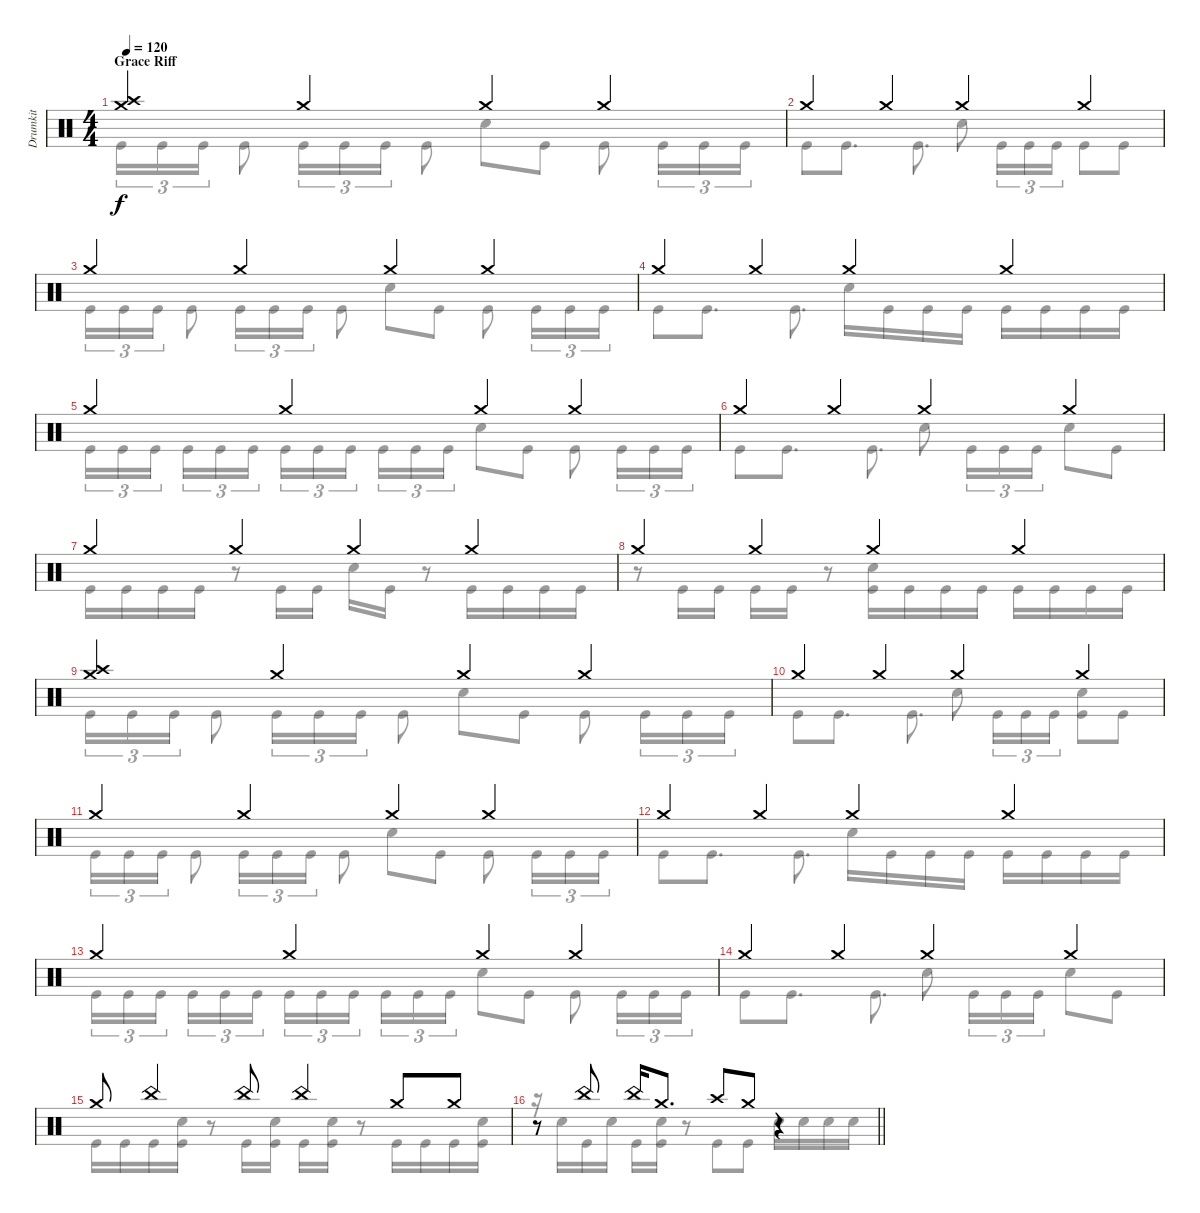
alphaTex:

\track ("Drumkit" "Drumkit") {instrument percussion}
\staff {score}
\articulation defaults
\voice
\ts (4 4)
\section ("" "Grace Riff")
\tempo 120
\clef neutral
\ks c
("Crash high (hit)" "Crash medium (hit)").4{dy f} "Crash medium (hit)".4 "Crash medium (hit)".4 "Crash medium (hit)".4 |
"Crash medium (hit)".4 "Crash medium (hit)".4 "Crash medium (hit)".4 "Crash medium (hit)".4 |
"Crash medium (hit)".4 "Crash medium (hit)".4 "Crash medium (hit)".4 "Crash medium (hit)".4 |
"Crash medium (hit)".4 "Crash medium (hit)".4 "Crash medium (hit)".4 "Crash medium (hit)".4 |
"Crash medium (hit)".4 "Crash medium (hit)".4 "Crash medium (hit)".4 "Crash medium (hit)".4 |
"Crash medium (hit)".4 "Crash medium (hit)".4 "Crash medium (hit)".4 "Crash medium (hit)".4 |
"Crash medium (hit)".4 "Crash medium (hit)".4 "Crash medium (hit)".4 "Crash medium (hit)".4 |
"Crash medium (hit)".4 "Crash medium (hit)".4 "Crash medium (hit)".4 "Crash medium (hit)".4 |
("Crash high (hit)" "Crash medium (hit)").4 "Crash medium (hit)".4 "Crash medium (hit)".4 "Crash medium (hit)".4 |
"Crash medium (hit)".4 "Crash medium (hit)".4 "Crash medium (hit)".4 "Crash medium (hit)".4 |
"Crash medium (hit)".4 "Crash medium (hit)".4 "Crash medium (hit)".4 "Crash medium (hit)".4 |
"Crash medium (hit)".4 "Crash medium (hit)".4 "Crash medium (hit)".4 "Crash medium (hit)".4 |
"Crash medium (hit)".4 "Crash medium (hit)".4 "Crash medium (hit)".4 "Crash medium (hit)".4 |
"Crash medium (hit)".4 "Crash medium (hit)".4 "Crash medium (hit)".4 "Crash medium (hit)".4 |
"Crash medium (hit)".8 "China (hit)".4 "China (hit)".8 "China (hit)".4 "Crash medium (hit)".8 "Crash medium (hit)".8 |
\barLineRight lightlight
r.8 "China (hit)".8 "China (hit)".16 "Crash medium (hit)".8{d} "Crash high (hit)".8 "Crash medium (hit)".8 r.4
\voice
\clef neutral
\ottava regular
\simile none
\ks c "Kick (hit)".16{tu (3 2) dy f} "Kick (hit)".16{tu (3 2)} "Kick (hit)".16{tu (3 2)} "Kick (hit)".8 "Kick (hit)".16{tu (3 2)} "Kick (hit)".16{tu (3 2)} "Kick (hit)".16{tu (3 2)} "Kick (hit)".8 "Snare (hit) 2".8 "Kick (hit)".8 "Kick (hit)".8 "Kick (hit)".16{tu (3 2)} "Kick (hit)".16{tu (3 2)} "Kick (hit)".16{tu (3 2)}
|
"Kick (hit)".8 "Kick (hit)".8{d} "Kick (hit)".8{d} "Snare (hit) 2".8 "Kick (hit)".16{tu (3 2)} "Kick (hit)".16{tu (3 2)} "Kick (hit)".16{tu (3 2)} "Kick (hit)".8 "Kick (hit)".8 |
"Kick (hit)".16{tu (3 2)} "Kick (hit)".16{tu (3 2)} "Kick (hit)".16{tu (3 2)} "Kick (hit)".8 "Kick (hit)".16{tu (3 2)} "Kick (hit)".16{tu (3 2)} "Kick (hit)".16{tu (3 2)} "Kick (hit)".8 "Snare (hit) 2".8 "Kick (hit)".8 "Kick (hit)".8 "Kick (hit)".16{tu (3 2)} "Kick (hit)".16{tu (3 2)} "Kick (hit)".16{tu (3 2)} |
"Kick (hit)".8 "Kick (hit)".8{d} "Kick (hit)".8{d} "Snare (hit) 2".16 "Kick (hit)".16 "Kick (hit)".16 "Kick (hit)".16 "Kick (hit)".16 "Kick (hit)".16 "Kick (hit)".16 "Kick (hit)".16 |
"Kick (hit)".16{tu (3 2)} "Kick (hit)".16{tu (3 2)} "Kick (hit)".16{tu (3 2) beam splitsecondary} "Kick (hit)".16{tu (3 2)} "Kick (hit)".16{tu (3 2)} "Kick (hit)".16{tu (3 2)} "Kick (hit)".16{tu (3 2)} "Kick (hit)".16{tu (3 2)} "Kick (hit)".16{tu (3 2) beam splitsecondary} "Kick (hit)".16{tu (3 2)} "Kick (hit)".16{tu (3 2)} "Kick (hit)".16{tu (3 2)} "Snare (hit) 2".8 "Kick (hit)".8 "Kick (hit)".8 "Kick (hit)".16{tu (3 2)} "Kick (hit)".16{tu (3 2)} "Kick (hit)".16{tu (3 2)} |
"Kick (hit)".8 "Kick (hit)".8{d} "Kick (hit)".8{d} "Snare (hit) 2".8 "Kick (hit)".16{tu (3 2)} "Kick (hit)".16{tu (3 2)} "Kick (hit)".16{tu (3 2)} "Snare (hit) 2".8 "Kick (hit)".8 |
"Kick (hit)".16 "Kick (hit)".16 "Kick (hit)".16 "Kick (hit)".16 r.8 "Kick (hit)".16 "Kick (hit)".16 "Snare (hit) 2".16 "Kick (hit)".16 r.8 "Kick (hit)".16 "Kick (hit)".16 "Kick (hit)".16 "Kick (hit)".16 |
r.8 "Kick (hit)".16 "Kick (hit)".16 "Kick (hit)".16 "Kick (hit)".16 r.8 ("Snare (hit) 2" "Kick (hit)").16 "Kick (hit)".16 "Kick (hit)".16 "Kick (hit)".16 "Kick (hit)".16 "Kick (hit)".16 "Kick (hit)".16 "Kick (hit)".16 |
"Kick (hit)".16{tu (3 2)} "Kick (hit)".16{tu (3 2)} "Kick (hit)".16{tu (3 2)} "Kick (hit)".8 "Kick (hit)".16{tu (3 2)} "Kick (hit)".16{tu (3 2)} "Kick (hit)".16{tu (3 2)} "Kick (hit)".8 "Snare (hit) 2".8 "Kick (hit)".8 "Kick (hit)".8 "Kick (hit)".16{tu (3 2)} "Kick (hit)".16{tu (3 2)} "Kick (hit)".16{tu (3 2)} |
"Kick (hit)".8 "Kick (hit)".8{d} "Kick (hit)".8{d} "Snare (hit) 2".8 "Kick (hit)".16{tu (3 2)} "Kick (hit)".16{tu (3 2)} "Kick (hit)".16{tu (3 2)} ("Snare (hit) 2" "Kick (hit)").8 "Kick (hit)".8 |
"Kick (hit)".16{tu (3 2)} "Kick (hit)".16{tu (3 2)} "Kick (hit)".16{tu (3 2)} "Kick (hit)".8 "Kick (hit)".16{tu (3 2)} "Kick (hit)".16{tu (3 2)} "Kick (hit)".16{tu (3 2)} "Kick (hit)".8 "Snare (hit) 2".8 "Kick (hit)".8 "Kick (hit)".8 "Kick (hit)".16{tu (3 2)} "Kick (hit)".16{tu (3 2)} "Kick (hit)".16{tu (3 2)} |
"Kick (hit)".8 "Kick (hit)".8{d} "Kick (hit)".8{d} "Snare (hit) 2".16 "Kick (hit)".16 "Kick (hit)".16 "Kick (hit)".16 "Kick (hit)".16 "Kick (hit)".16 "Kick (hit)".16 "Kick (hit)".16 |
"Kick (hit)".16{tu (3 2)} "Kick (hit)".16{tu (3 2)} "Kick (hit)".16{tu (3 2) beam splitsecondary} "Kick (hit)".16{tu (3 2)} "Kick (hit)".16{tu (3 2)} "Kick (hit)".16{tu (3 2)} "Kick (hit)".16{tu (3 2)} "Kick (hit)".16{tu (3 2)} "Kick (hit)".16{tu (3 2) beam splitsecondary} "Kick (hit)".16{tu (3 2)} "Kick (hit)".16{tu (3 2)} "Kick (hit)".16{tu (3 2)} "Snare (hit) 2".8 "Kick (hit)".8 "Kick (hit)".8 "Kick (hit)".16{tu (3 2)} "Kick (hit)".16{tu (3 2)} "Kick (hit)".16{tu (3 2)} |
"Kick (hit)".8 "Kick (hit)".8{d} "Kick (hit)".8{d} "Snare (hit) 2".8 "Kick (hit)".16{tu (3 2)} "Kick (hit)".16{tu (3 2)} "Kick (hit)".16{tu (3 2)} "Snare (hit) 2".8 "Kick (hit)".8 |
"Kick (hit)".16 "Kick (hit)".16 "Kick (hit)".16 ("Snare (hit) 2" "Kick (hit)").16 r.8 "Kick (hit)".16 ("Snare (hit) 2" "Kick (hit)").16 "Kick (hit)".16 ("Snare (hit) 2" "Kick (hit)").16 r.8 "Kick (hit)".16 "Kick (hit)".16 "Kick (hit)".16 ("Snare (hit) 2" "Kick (hit)").16 |
\barLineRight lightlight
r.16 "Snare (hit) 2".16 "Kick (hit)".16 "Snare (hit) 2".16 "Kick (hit)".16 ("Snare (hit) 2" "Kick (hit)").16 r.8 "Kick (hit)".8 "Kick (hit)".8 "Snare (hit) 2".16 "Snare (hit) 2".16 "Snare (hit) 2".16 "Snare (hit) 2".16
